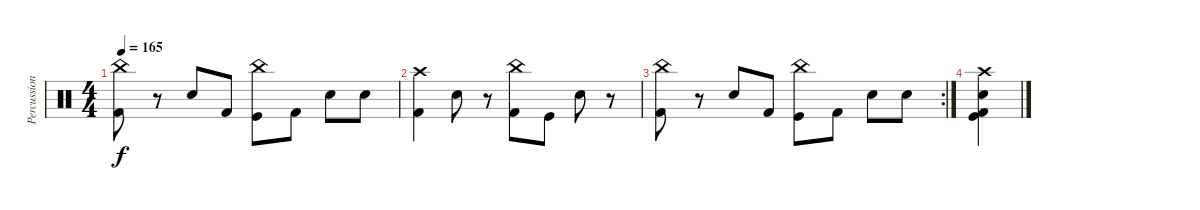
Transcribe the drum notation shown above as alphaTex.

\track ("Percussion" "Percussion") {instrument percussion}
\staff {score}
\articulation defaults
\ts (4 4)
\tempo 165
\clef neutral
\ks c
("China (hit)" "Kick (hit) 2").8{dy f} r.8 "Electric Snare (hit)".8 "Kick (hit) 2".8 ("China (hit)" "Kick (hit)").8 "Kick (hit) 2".8 "Electric Snare (hit)".8 "Electric Snare (hit)".8 |
("Crash high (hit)" "Kick (hit) 2").4 "Electric Snare (hit)".8 r.8 ("China (hit)" "Kick (hit) 2").8 "Kick (hit)".8 "Electric Snare (hit)".8 r.8 |
\rc 2
("China (hit)" "Kick (hit) 2").8 r.8 "Electric Snare (hit)".8 "Kick (hit) 2".8 ("China (hit)" "Kick (hit)").8 "Kick (hit) 2".8 "Electric Snare (hit)".8 "Electric Snare (hit)".8 |
("Crash high (hit)" "Electric Snare (hit)" "Kick (hit)" "Kick (hit) 2").4
